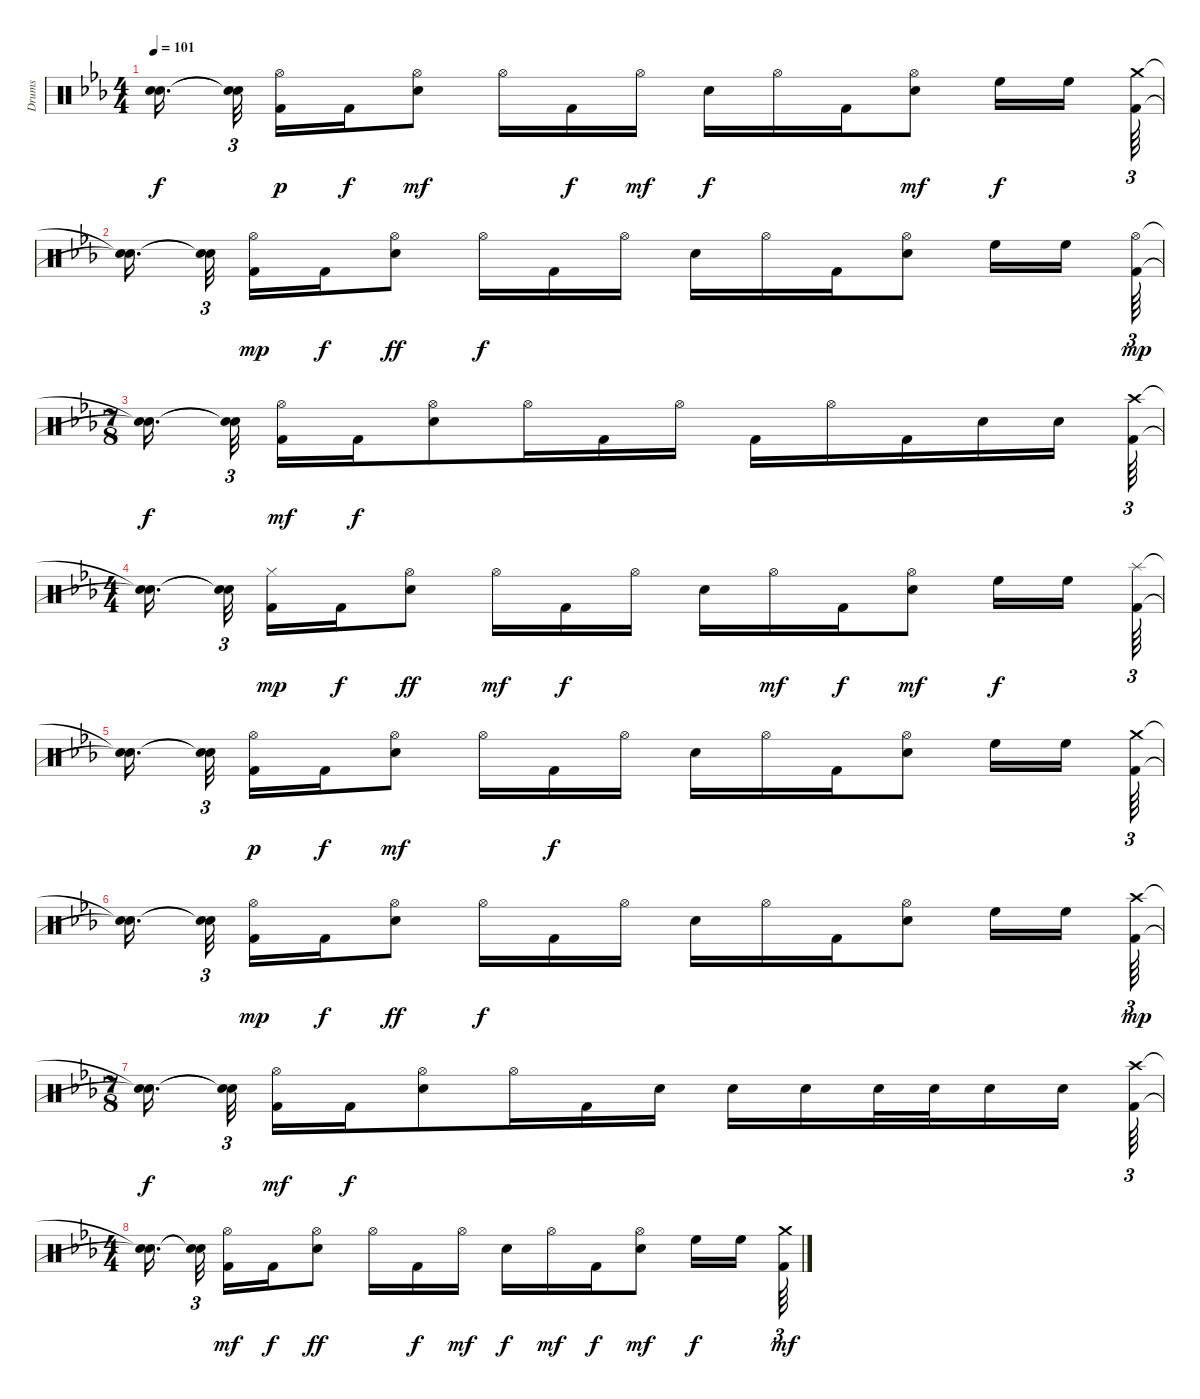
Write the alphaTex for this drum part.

\track ("Drums" "Drums") {instrument percussion}
\staff {score}
\articulation defaults
\ts (4 4)
\tempo 101
\clef neutral
\ks cminor
("Snare (hit)"{t} "Snare (hit)"{t}).16{d dy f beam splitsecondary} ("Snare (hit)"{t} "Snare (hit)"{t}).32{tu (3 2) beam splitsecondary} ("Kick (hit) 2" "Hi-Hat (open)").16{dy p} "Kick (hit) 2".16{dy f} ("Electric Snare (hit)" "Hi-Hat (open)").8{dy mf} "Hi-Hat (open)".16 "Kick (hit) 2".16{dy f} "Hi-Hat (open)".16{dy mf} "Electric Snare (hit)".16{dy f} "Hi-Hat (open)".16 "Kick (hit) 2".16 ("Electric Snare (hit)" "Hi-Hat (open)").8{dy mf} "High Floor Tom (hit)".16{dy f} "High Floor Tom (hit)".16{beam splitsecondary} ("Kick (hit) 2" "Crash medium (hit)").64{tu (3 2)} |
("Snare (hit)"{t} "Snare (hit)"{t}).16{d beam splitsecondary} ("Snare (hit)"{t} "Snare (hit)"{t}).32{tu (3 2) beam splitsecondary} ("Kick (hit) 2" "Hi-Hat (open)").16{dy mp} "Kick (hit) 2".16{dy f} ("Electric Snare (hit)" "Hi-Hat (open)").8{dy ff} "Hi-Hat (open)".16{dy f} "Kick (hit) 2".16 "Hi-Hat (open)".16 "Electric Snare (hit)".16 "Hi-Hat (open)".16 "Kick (hit) 2".16 ("Electric Snare (hit)" "Hi-Hat (open)").8 "High Floor Tom (hit)".16 "High Floor Tom (hit)".16{beam splitsecondary} ("Kick (hit) 2" "Hi-Hat (open)").64{tu (3 2) dy mp} |
\ts (7 8)
("Snare (hit)"{t} "Snare (hit)"{t}).16{d dy f beam splitsecondary} ("Snare (hit)"{t} "Snare (hit)"{t}).32{tu (3 2)} ("Kick (hit) 2" "Hi-Hat (open)").16{dy mf} "Kick (hit) 2".16{dy f} ("Electric Snare (hit)" "Hi-Hat (open)").8 "Hi-Hat (open)".16 "Kick (hit) 2".16 "Hi-Hat (open)".16 "Kick (hit) 2".16 "Hi-Hat (open)".16 "Kick (hit) 2".16 "Electric Snare (hit)".16 "Electric Snare (hit)".16 ("Crash high (hit)" "Kick (hit) 2").64{tu (3 2)} |
\ts (4 4)
("Snare (hit)"{t} "Snare (hit)"{t}).16{d beam splitsecondary} ("Snare (hit)"{t} "Snare (hit)"{t}).32{tu (3 2) beam splitsecondary} ("Kick (hit) 2" "Hi-Hat (closed)").16{dy mp} "Kick (hit) 2".16{dy f} ("Electric Snare (hit)" "Hi-Hat (open)").8{dy ff} "Hi-Hat (open)".16{dy mf} "Kick (hit) 2".16{dy f} "Hi-Hat (open)".16 "Electric Snare (hit)".16 "Hi-Hat (open)".16{dy mf} "Kick (hit) 2".16{dy f} ("Electric Snare (hit)" "Hi-Hat (open)").8{dy mf} "High Floor Tom (hit)".16{dy f} "High Floor Tom (hit)".16{beam splitsecondary} ("Kick (hit) 2" "Splash (hit)").64{tu (3 2)} |
("Snare (hit)"{t} "Snare (hit)"{t}).16{d beam splitsecondary} ("Snare (hit)"{t} "Snare (hit)"{t}).32{tu (3 2) beam splitsecondary} ("Kick (hit) 2" "Hi-Hat (open)").16{dy p} "Kick (hit) 2".16{dy f} ("Electric Snare (hit)" "Hi-Hat (open)").8{dy mf} "Hi-Hat (open)".16 "Kick (hit) 2".16{dy f} "Hi-Hat (open)".16 "Electric Snare (hit)".16 "Hi-Hat (open)".16 "Kick (hit) 2".16 ("Electric Snare (hit)" "Hi-Hat (open)").8 "High Floor Tom (hit)".16 "High Floor Tom (hit)".16{beam splitsecondary} ("Kick (hit) 2" "Crash medium (hit)").64{tu (3 2)} |
("Snare (hit)"{t} "Snare (hit)"{t}).16{d beam splitsecondary} ("Snare (hit)"{t} "Snare (hit)"{t}).32{tu (3 2) beam splitsecondary} ("Kick (hit) 2" "Hi-Hat (open)").16{dy mp} "Kick (hit) 2".16{dy f} ("Electric Snare (hit)" "Hi-Hat (open)").8{dy ff} "Hi-Hat (open)".16{dy f} "Kick (hit) 2".16 "Hi-Hat (open)".16 "Electric Snare (hit)".16 "Hi-Hat (open)".16 "Kick (hit) 2".16 ("Electric Snare (hit)" "Hi-Hat (open)").8 "High Floor Tom (hit)".16 "High Floor Tom (hit)".16{beam splitsecondary} ("Kick (hit) 2" "Crash high (hit)").64{tu (3 2) dy mp} |
\ts (7 8)
("Snare (hit)"{t} "Snare (hit)"{t}).16{d dy f beam splitsecondary} ("Snare (hit)"{t} "Snare (hit)"{t}).32{tu (3 2)} ("Kick (hit) 2" "Hi-Hat (open)").16{dy mf} "Kick (hit) 2".16{dy f} ("Electric Snare (hit)" "Hi-Hat (open)").8 "Hi-Hat (open)".16 "Kick (hit) 2".16 "Electric Snare (hit)".16 "Electric Snare (hit)".16 "Electric Snare (hit)".16 "Electric Snare (hit)".32 "Electric Snare (hit)".32 "Electric Snare (hit)".16 "Electric Snare (hit)".16 ("Kick (hit) 2" "Crash high (hit)").64{tu (3 2)} |
\ts (4 4)
("Snare (hit)"{t} "Snare (hit)"{t}).16{d beam splitsecondary} ("Snare (hit)"{t} "Snare (hit)"{t}).32{tu (3 2) beam splitsecondary} ("Kick (hit) 2" "Hi-Hat (open)").16{dy mf} "Kick (hit) 2".16{dy f} ("Electric Snare (hit)" "Hi-Hat (open)").8{dy ff} "Hi-Hat (open)".16 "Kick (hit) 2".16{dy f} "Hi-Hat (open)".16{dy mf} "Electric Snare (hit)".16{dy f} "Hi-Hat (open)".16{dy mf} "Kick (hit) 2".16{dy f} ("Electric Snare (hit)" "Hi-Hat (open)").8{dy mf} "High Floor Tom (hit)".16{dy f} "High Floor Tom (hit)".16{beam splitsecondary} ("Kick (hit) 2" "Crash medium (hit)").64{tu (3 2) dy mf}
